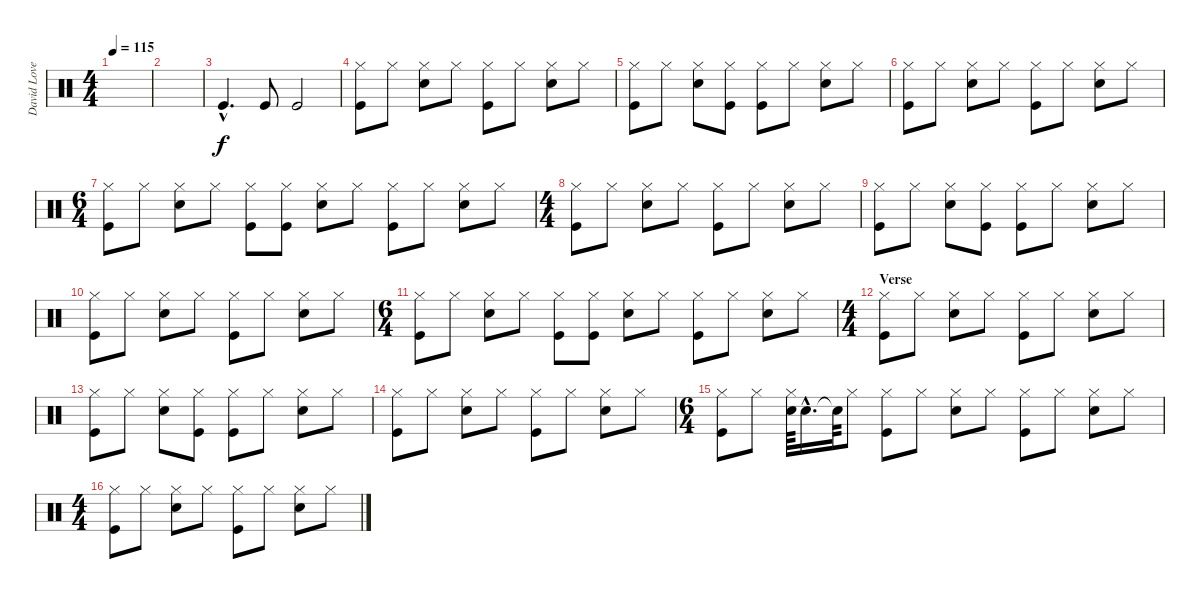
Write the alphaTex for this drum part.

\track ("David Lovering" "David Love") {instrument percussion}
\staff {score}
\articulation defaults
\ts (4 4)
\tempo 115
\clef neutral
\ks c
|
|
"Kick (hit)"{hac}.4{d} "Kick (hit)".8 "Kick (hit)".2 |
("Hi-Hat (closed)" "Kick (hit)").8 "Hi-Hat (closed)".8 ("Hi-Hat (closed)" "Snare (hit) 2").8 "Hi-Hat (closed)".8 ("Hi-Hat (closed)" "Kick (hit)").8 "Hi-Hat (closed)".8 ("Hi-Hat (closed)" "Snare (hit) 2").8 "Hi-Hat (closed)".8 |
("Hi-Hat (closed)" "Kick (hit)").8 "Hi-Hat (closed)".8 ("Hi-Hat (closed)" "Snare (hit) 2").8 ("Hi-Hat (closed)" "Kick (hit)").8 ("Hi-Hat (closed)" "Kick (hit)").8 "Hi-Hat (closed)".8 ("Hi-Hat (closed)" "Snare (hit) 2").8 "Hi-Hat (closed)".8 |
("Hi-Hat (closed)" "Kick (hit)").8 "Hi-Hat (closed)".8 ("Hi-Hat (closed)" "Snare (hit) 2").8 "Hi-Hat (closed)".8 ("Hi-Hat (closed)" "Kick (hit)").8 "Hi-Hat (closed)".8 ("Hi-Hat (closed)" "Snare (hit) 2").8 "Hi-Hat (closed)".8 |
\ts (6 4)
("Hi-Hat (closed)" "Kick (hit)").8 "Hi-Hat (closed)".8 ("Hi-Hat (closed)" "Snare (hit) 2").8 "Hi-Hat (closed)".8 ("Hi-Hat (closed)" "Kick (hit)").8 ("Hi-Hat (closed)" "Kick (hit)").8 ("Hi-Hat (closed)" "Snare (hit) 2").8 "Hi-Hat (closed)".8 ("Hi-Hat (closed)" "Kick (hit)").8 "Hi-Hat (closed)".8 ("Hi-Hat (closed)" "Snare (hit) 2").8 "Hi-Hat (closed)".8 |
\ts (4 4)
("Hi-Hat (closed)" "Kick (hit)").8 "Hi-Hat (closed)".8 ("Hi-Hat (closed)" "Snare (hit) 2").8 "Hi-Hat (closed)".8 ("Hi-Hat (closed)" "Kick (hit)").8 "Hi-Hat (closed)".8 ("Hi-Hat (closed)" "Snare (hit) 2").8 "Hi-Hat (closed)".8 |
("Hi-Hat (closed)" "Kick (hit)").8 "Hi-Hat (closed)".8 ("Hi-Hat (closed)" "Snare (hit) 2").8 ("Hi-Hat (closed)" "Kick (hit)").8 ("Hi-Hat (closed)" "Kick (hit)").8 "Hi-Hat (closed)".8 ("Hi-Hat (closed)" "Snare (hit) 2").8 "Hi-Hat (closed)".8 |
("Hi-Hat (closed)" "Kick (hit)").8 "Hi-Hat (closed)".8 ("Hi-Hat (closed)" "Snare (hit) 2").8 "Hi-Hat (closed)".8 ("Hi-Hat (closed)" "Kick (hit)").8 "Hi-Hat (closed)".8 ("Hi-Hat (closed)" "Snare (hit) 2").8 "Hi-Hat (closed)".8 |
\ts (6 4)
("Hi-Hat (closed)" "Kick (hit)").8 "Hi-Hat (closed)".8 ("Hi-Hat (closed)" "Snare (hit) 2").8 "Hi-Hat (closed)".8 ("Hi-Hat (closed)" "Kick (hit)").8 ("Hi-Hat (closed)" "Kick (hit)").8 ("Hi-Hat (closed)" "Snare (hit) 2").8 "Hi-Hat (closed)".8 ("Hi-Hat (closed)" "Kick (hit)").8 "Hi-Hat (closed)".8 ("Hi-Hat (closed)" "Snare (hit) 2").8 "Hi-Hat (closed)".8 |
\ts (4 4)
\section ("" "Verse")
("Hi-Hat (closed)" "Kick (hit)").8 "Hi-Hat (closed)".8 ("Hi-Hat (closed)" "Snare (hit) 2").8 "Hi-Hat (closed)".8 ("Hi-Hat (closed)" "Kick (hit)").8 "Hi-Hat (closed)".8 ("Hi-Hat (closed)" "Snare (hit) 2").8 "Hi-Hat (closed)".8 |
("Hi-Hat (closed)" "Kick (hit)").8 "Hi-Hat (closed)".8 ("Hi-Hat (closed)" "Snare (hit) 2").8 ("Hi-Hat (closed)" "Kick (hit)").8 ("Hi-Hat (closed)" "Kick (hit)").8 "Hi-Hat (closed)".8 ("Hi-Hat (closed)" "Snare (hit) 2").8 "Hi-Hat (closed)".8 |
("Hi-Hat (closed)" "Kick (hit)").8 "Hi-Hat (closed)".8 ("Hi-Hat (closed)" "Snare (hit) 2").8 "Hi-Hat (closed)".8 ("Hi-Hat (closed)" "Kick (hit)").8 "Hi-Hat (closed)".8 ("Hi-Hat (closed)" "Snare (hit) 2").8 "Hi-Hat (closed)".8 |
\ts (6 4)
("Hi-Hat (closed)" "Kick (hit)").8 "Hi-Hat (closed)".8 ("Hi-Hat (closed)" "Snare (hit) 2").64 "Snare (hit) 2"{hac}.16{d} "Snare (hit) 2"{t}.64 "Hi-Hat (closed)".8 ("Hi-Hat (closed)" "Kick (hit)").8 "Hi-Hat (closed)".8 ("Hi-Hat (closed)" "Snare (hit) 2").8 "Hi-Hat (closed)".8 ("Hi-Hat (closed)" "Kick (hit)").8 "Hi-Hat (closed)".8 ("Hi-Hat (closed)" "Snare (hit) 2").8 "Hi-Hat (closed)".8 |
\ts (4 4)
("Hi-Hat (closed)" "Kick (hit)").8 "Hi-Hat (closed)".8 ("Hi-Hat (closed)" "Snare (hit) 2").8 "Hi-Hat (closed)".8 ("Hi-Hat (closed)" "Kick (hit)").8 "Hi-Hat (closed)".8 ("Hi-Hat (closed)" "Snare (hit) 2").8 "Hi-Hat (closed)".8
